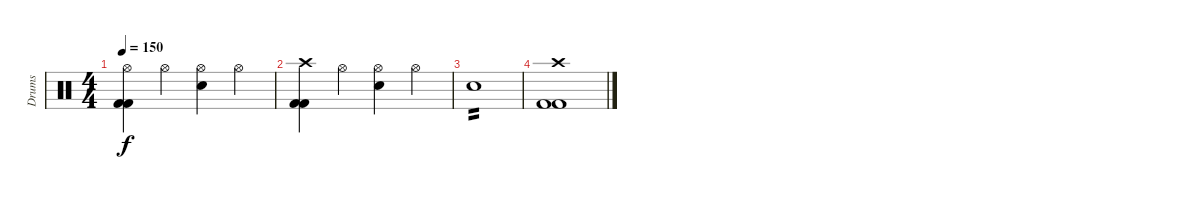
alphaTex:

\track ("Drums" "Drums") {instrument percussion}
\staff {score}
\articulation defaults
\ts (4 4)
\tempo 150
\clef neutral
\ks c
("Kick (hit) 2" "Kick (hit) 2" "Hi-Hat (open)").4{dy f} "Hi-Hat (open)".4 ("Hi-Hat (open)" "Electric Snare (hit)").4 "Hi-Hat (open)".4 |
("Crash high (hit)" "Kick (hit) 2" "Kick (hit) 2").4 "Hi-Hat (open)".4 ("Electric Snare (hit)" "Hi-Hat (open)").4 "Hi-Hat (open)".4 |
"Electric Snare (hit)".1{tp 2} |
("Crash high (hit)" "Kick (hit) 2" "Kick (hit) 2").1
